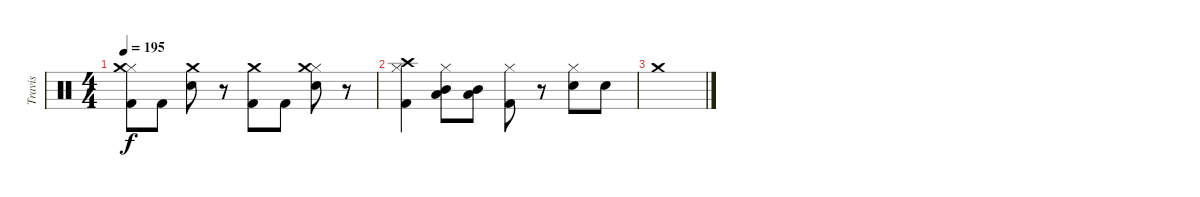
\track ("Travis" "Travis") {instrument percussion}
\staff {score}
\articulation defaults
\ts (4 4)
\tempo 195
\clef neutral
\ks c
("Kick (hit) 2" "Hi-Hat (closed)" "Crash medium (hit)").8{dy f} "Kick (hit) 2".8 ("Electric Snare (hit)" "Crash medium (hit)").8 r.8 ("Kick (hit) 2" "Crash medium (hit)").8 "Kick (hit) 2".8 ("Electric Snare (hit)" "Hi-Hat (closed)" "Crash medium (hit)").8 r.8 |
("Kick (hit) 2" "Hi-Hat (closed)" "Crash high (hit)").4 ("Mid Tom (hit)" "Low Floor Tom (hit)" "Hi-Hat (closed)").8 ("Mid Tom (hit)" "Low Floor Tom (hit)").8 ("Kick (hit) 2" "Hi-Hat (closed)").8 r.8 ("Electric Snare (hit)" "Hi-Hat (closed)").8 "Electric Snare (hit)".8 |
"Crash medium (hit)".1
